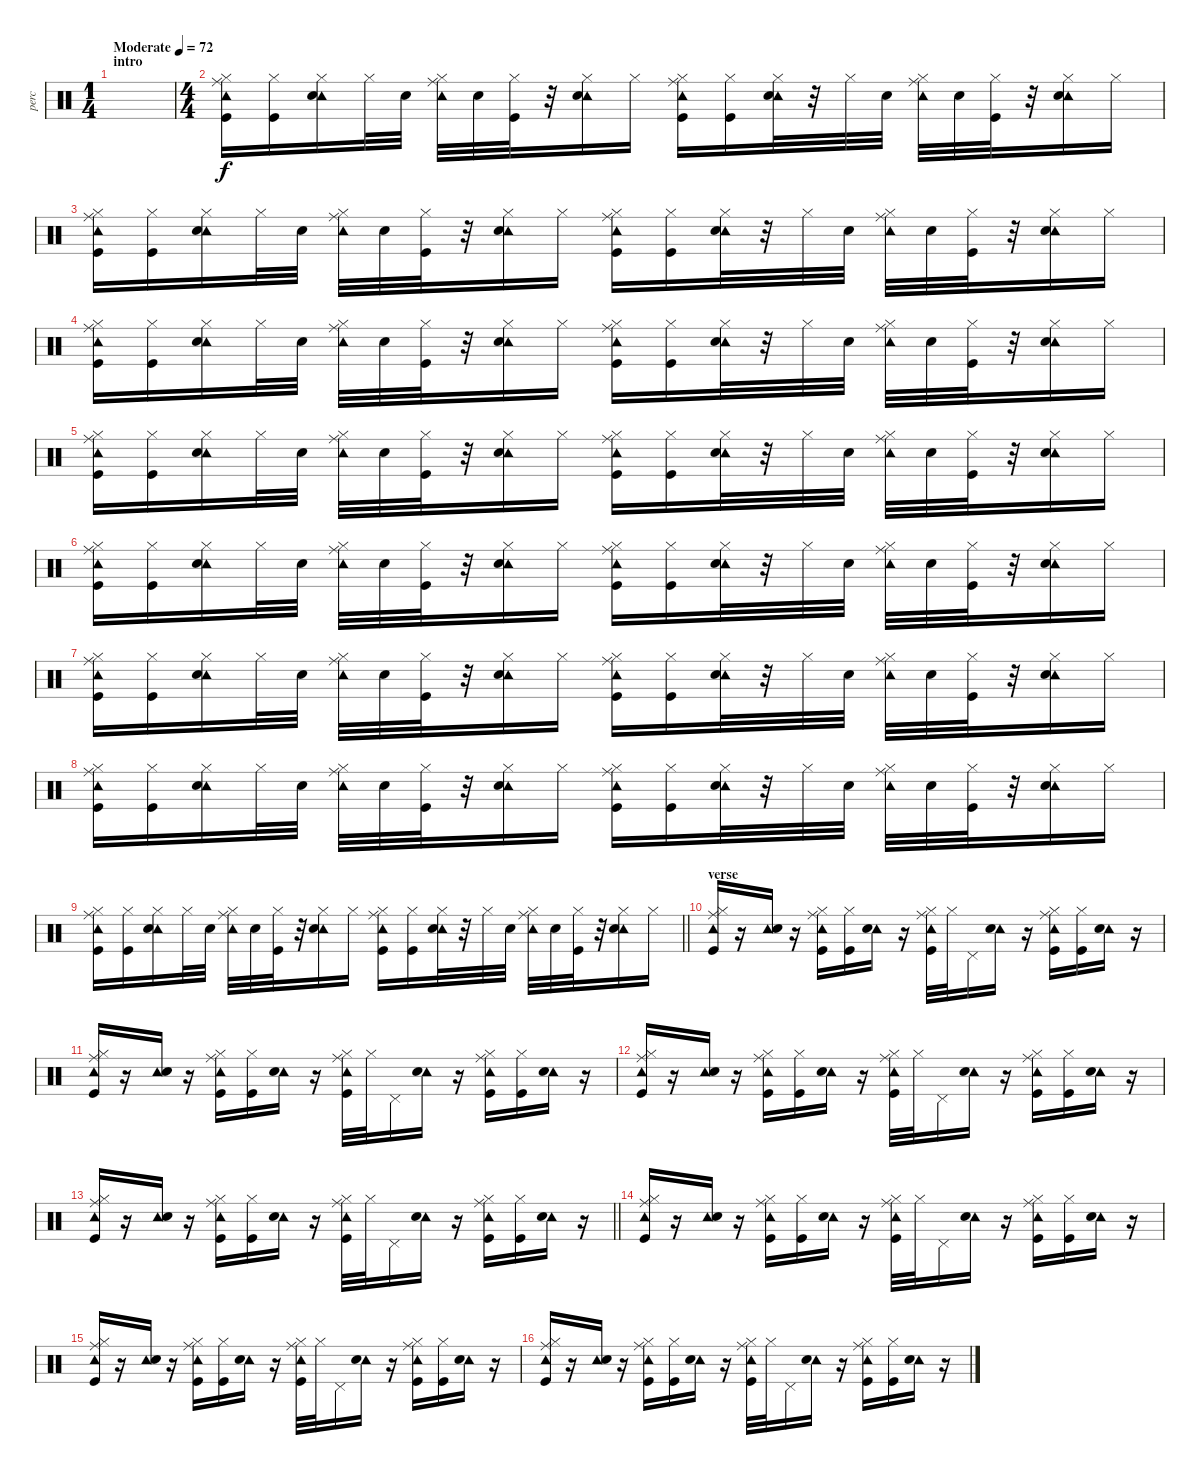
\track ("perc" "perc") {instrument percussion}
\staff {score}
\articulation defaults
\ts (1 4)
\section ("" "intro")
\tempo (72 "Moderate")
\clef neutral
\ks c
|
\ts (4 4)
("Tambourine (hit)" "Hi-Hat (closed)" "Ride (middle)" "Kick (hit)").16 ("Hi-Hat (closed)" "Kick (hit)").16 ("Tambourine (hit)" "Hi-Hat (closed)" "Snare (hit) 2").16 "Hi-Hat (closed)".32 "Snare (hit) 2".32 ("Tambourine (hit)" "Hi-Hat (closed)" "Ride (middle)").32 "Snare (hit) 2".32 ("Hi-Hat (closed)" "Kick (hit)").32 r.32 ("Tambourine (hit)" "Hi-Hat (closed)" "Snare (hit) 2").16 "Hi-Hat (closed)".16 ("Tambourine (hit)" "Hi-Hat (closed)" "Ride (middle)" "Kick (hit)").16 ("Hi-Hat (closed)" "Kick (hit)").16 ("Tambourine (hit)" "Hi-Hat (closed)" "Snare (hit) 2").32 r.32 "Hi-Hat (closed)".32 "Snare (hit) 2".32 ("Tambourine (hit)" "Hi-Hat (closed)" "Ride (middle)").32 "Snare (hit) 2".32 ("Hi-Hat (closed)" "Kick (hit)").32 r.32 ("Tambourine (hit)" "Hi-Hat (closed)" "Snare (hit) 2").16 "Hi-Hat (closed)".16 |
("Tambourine (hit)" "Hi-Hat (closed)" "Ride (middle)" "Kick (hit)").16 ("Hi-Hat (closed)" "Kick (hit)").16 ("Tambourine (hit)" "Hi-Hat (closed)" "Snare (hit) 2").16 "Hi-Hat (closed)".32 "Snare (hit) 2".32 ("Tambourine (hit)" "Hi-Hat (closed)" "Ride (middle)").32 "Snare (hit) 2".32 ("Hi-Hat (closed)" "Kick (hit)").32 r.32 ("Tambourine (hit)" "Hi-Hat (closed)" "Snare (hit) 2").16 "Hi-Hat (closed)".16 ("Tambourine (hit)" "Hi-Hat (closed)" "Ride (middle)" "Kick (hit)").16 ("Hi-Hat (closed)" "Kick (hit)").16 ("Tambourine (hit)" "Hi-Hat (closed)" "Snare (hit) 2").32 r.32 "Hi-Hat (closed)".32 "Snare (hit) 2".32 ("Tambourine (hit)" "Hi-Hat (closed)" "Ride (middle)").32 "Snare (hit) 2".32 ("Hi-Hat (closed)" "Kick (hit)").32 r.32 ("Tambourine (hit)" "Hi-Hat (closed)" "Snare (hit) 2").16 "Hi-Hat (closed)".16 |
("Tambourine (hit)" "Hi-Hat (closed)" "Ride (middle)" "Kick (hit)").16 ("Hi-Hat (closed)" "Kick (hit)").16 ("Tambourine (hit)" "Hi-Hat (closed)" "Snare (hit) 2").16 "Hi-Hat (closed)".32 "Snare (hit) 2".32 ("Tambourine (hit)" "Hi-Hat (closed)" "Ride (middle)").32 "Snare (hit) 2".32 ("Hi-Hat (closed)" "Kick (hit)").32 r.32 ("Tambourine (hit)" "Hi-Hat (closed)" "Snare (hit) 2").16 "Hi-Hat (closed)".16 ("Tambourine (hit)" "Hi-Hat (closed)" "Ride (middle)" "Kick (hit)").16 ("Hi-Hat (closed)" "Kick (hit)").16 ("Tambourine (hit)" "Hi-Hat (closed)" "Snare (hit) 2").32 r.32 "Hi-Hat (closed)".32 "Snare (hit) 2".32 ("Tambourine (hit)" "Hi-Hat (closed)" "Ride (middle)").32 "Snare (hit) 2".32 ("Hi-Hat (closed)" "Kick (hit)").32 r.32 ("Tambourine (hit)" "Hi-Hat (closed)" "Snare (hit) 2").16 "Hi-Hat (closed)".16 |
("Tambourine (hit)" "Hi-Hat (closed)" "Ride (middle)" "Kick (hit)").16 ("Hi-Hat (closed)" "Kick (hit)").16 ("Tambourine (hit)" "Hi-Hat (closed)" "Snare (hit) 2").16 "Hi-Hat (closed)".32 "Snare (hit) 2".32 ("Tambourine (hit)" "Hi-Hat (closed)" "Ride (middle)").32 "Snare (hit) 2".32 ("Hi-Hat (closed)" "Kick (hit)").32 r.32 ("Tambourine (hit)" "Hi-Hat (closed)" "Snare (hit) 2").16 "Hi-Hat (closed)".16 ("Tambourine (hit)" "Hi-Hat (closed)" "Ride (middle)" "Kick (hit)").16 ("Hi-Hat (closed)" "Kick (hit)").16 ("Tambourine (hit)" "Hi-Hat (closed)" "Snare (hit) 2").32 r.32 "Hi-Hat (closed)".32 "Snare (hit) 2".32 ("Tambourine (hit)" "Hi-Hat (closed)" "Ride (middle)").32 "Snare (hit) 2".32 ("Hi-Hat (closed)" "Kick (hit)").32 r.32 ("Tambourine (hit)" "Hi-Hat (closed)" "Snare (hit) 2").16 "Hi-Hat (closed)".16 |
("Tambourine (hit)" "Hi-Hat (closed)" "Ride (middle)" "Kick (hit)").16 ("Hi-Hat (closed)" "Kick (hit)").16 ("Tambourine (hit)" "Hi-Hat (closed)" "Snare (hit) 2").16 "Hi-Hat (closed)".32 "Snare (hit) 2".32 ("Tambourine (hit)" "Hi-Hat (closed)" "Ride (middle)").32 "Snare (hit) 2".32 ("Hi-Hat (closed)" "Kick (hit)").32 r.32 ("Tambourine (hit)" "Hi-Hat (closed)" "Snare (hit) 2").16 "Hi-Hat (closed)".16 ("Tambourine (hit)" "Hi-Hat (closed)" "Ride (middle)" "Kick (hit)").16 ("Hi-Hat (closed)" "Kick (hit)").16 ("Tambourine (hit)" "Hi-Hat (closed)" "Snare (hit) 2").32 r.32 "Hi-Hat (closed)".32 "Snare (hit) 2".32 ("Tambourine (hit)" "Hi-Hat (closed)" "Ride (middle)").32 "Snare (hit) 2".32 ("Hi-Hat (closed)" "Kick (hit)").32 r.32 ("Tambourine (hit)" "Hi-Hat (closed)" "Snare (hit) 2").16 "Hi-Hat (closed)".16 |
("Tambourine (hit)" "Hi-Hat (closed)" "Ride (middle)" "Kick (hit)").16 ("Hi-Hat (closed)" "Kick (hit)").16 ("Tambourine (hit)" "Hi-Hat (closed)" "Snare (hit) 2").16 "Hi-Hat (closed)".32 "Snare (hit) 2".32 ("Tambourine (hit)" "Hi-Hat (closed)" "Ride (middle)").32 "Snare (hit) 2".32 ("Hi-Hat (closed)" "Kick (hit)").32 r.32 ("Tambourine (hit)" "Hi-Hat (closed)" "Snare (hit) 2").16 "Hi-Hat (closed)".16 ("Tambourine (hit)" "Hi-Hat (closed)" "Ride (middle)" "Kick (hit)").16 ("Hi-Hat (closed)" "Kick (hit)").16 ("Tambourine (hit)" "Hi-Hat (closed)" "Snare (hit) 2").32 r.32 "Hi-Hat (closed)".32 "Snare (hit) 2".32 ("Tambourine (hit)" "Hi-Hat (closed)" "Ride (middle)").32 "Snare (hit) 2".32 ("Hi-Hat (closed)" "Kick (hit)").32 r.32 ("Tambourine (hit)" "Hi-Hat (closed)" "Snare (hit) 2").16 "Hi-Hat (closed)".16 |
("Tambourine (hit)" "Hi-Hat (closed)" "Ride (middle)" "Kick (hit)").16 ("Hi-Hat (closed)" "Kick (hit)").16 ("Tambourine (hit)" "Hi-Hat (closed)" "Snare (hit) 2").16 "Hi-Hat (closed)".32 "Snare (hit) 2".32 ("Tambourine (hit)" "Hi-Hat (closed)" "Ride (middle)").32 "Snare (hit) 2".32 ("Hi-Hat (closed)" "Kick (hit)").32 r.32 ("Tambourine (hit)" "Hi-Hat (closed)" "Snare (hit) 2").16 "Hi-Hat (closed)".16 ("Tambourine (hit)" "Hi-Hat (closed)" "Ride (middle)" "Kick (hit)").16 ("Hi-Hat (closed)" "Kick (hit)").16 ("Tambourine (hit)" "Hi-Hat (closed)" "Snare (hit) 2").32 r.32 "Hi-Hat (closed)".32 "Snare (hit) 2".32 ("Tambourine (hit)" "Hi-Hat (closed)" "Ride (middle)").32 "Snare (hit) 2".32 ("Hi-Hat (closed)" "Kick (hit)").32 r.32 ("Tambourine (hit)" "Hi-Hat (closed)" "Snare (hit) 2").16 "Hi-Hat (closed)".16 |
\barLineRight lightlight
("Tambourine (hit)" "Hi-Hat (closed)" "Ride (middle)" "Kick (hit)").16 ("Hi-Hat (closed)" "Kick (hit)").16 ("Tambourine (hit)" "Hi-Hat (closed)" "Snare (hit) 2").16 "Hi-Hat (closed)".32 "Snare (hit) 2".32 ("Tambourine (hit)" "Hi-Hat (closed)" "Ride (middle)").32 "Snare (hit) 2".32 ("Hi-Hat (closed)" "Kick (hit)").32 r.32 ("Tambourine (hit)" "Hi-Hat (closed)" "Snare (hit) 2").16 "Hi-Hat (closed)".16 ("Tambourine (hit)" "Hi-Hat (closed)" "Ride (middle)" "Kick (hit)").16 ("Hi-Hat (closed)" "Kick (hit)").16 ("Tambourine (hit)" "Hi-Hat (closed)" "Snare (hit) 2").32 r.32 "Hi-Hat (closed)".32 "Snare (hit) 2".32 ("Tambourine (hit)" "Hi-Hat (closed)" "Ride (middle)").32 "Snare (hit) 2".32 ("Hi-Hat (closed)" "Kick (hit)").32 r.32 ("Tambourine (hit)" "Hi-Hat (closed)" "Snare (hit) 2").16 "Hi-Hat (closed)".16 |
\section ("" "verse")
("Tambourine (hit)" "Ride (middle)" "Hi-Hat (closed)" "Kick (hit)").16 r.16 ("Tambourine (hit)" "Snare (hit) 2").16 r.16 ("Tambourine (hit)" "Ride (middle)" "Hi-Hat (closed)" "Kick (hit)").16 ("Hi-Hat (closed)" "Kick (hit)").16 ("Tambourine (hit)" "Snare (hit) 2").16 r.16 ("Tambourine (hit)" "Ride (middle)" "Hi-Hat (closed)" "Kick (hit)").32 "Hi-Hat (closed)".32 "Pedal Hi-Hat (hit)".16 ("Tambourine (hit)" "Snare (hit) 2").16 r.16 ("Tambourine (hit)" "Ride (middle)" "Hi-Hat (closed)" "Kick (hit)").16 ("Hi-Hat (closed)" "Kick (hit)").16 ("Tambourine (hit)" "Snare (hit) 2").16 r.16 |
("Tambourine (hit)" "Ride (middle)" "Hi-Hat (closed)" "Kick (hit)").16 r.16 ("Tambourine (hit)" "Snare (hit) 2").16 r.16 ("Tambourine (hit)" "Ride (middle)" "Hi-Hat (closed)" "Kick (hit)").16 ("Hi-Hat (closed)" "Kick (hit)").16 ("Tambourine (hit)" "Snare (hit) 2").16 r.16 ("Tambourine (hit)" "Ride (middle)" "Hi-Hat (closed)" "Kick (hit)").32 "Hi-Hat (closed)".32 "Pedal Hi-Hat (hit)".16 ("Tambourine (hit)" "Snare (hit) 2").16 r.16 ("Tambourine (hit)" "Ride (middle)" "Hi-Hat (closed)" "Kick (hit)").16 ("Hi-Hat (closed)" "Kick (hit)").16 ("Tambourine (hit)" "Snare (hit) 2").16 r.16 |
("Tambourine (hit)" "Ride (middle)" "Hi-Hat (closed)" "Kick (hit)").16 r.16 ("Tambourine (hit)" "Snare (hit) 2").16 r.16 ("Tambourine (hit)" "Ride (middle)" "Hi-Hat (closed)" "Kick (hit)").16 ("Hi-Hat (closed)" "Kick (hit)").16 ("Tambourine (hit)" "Snare (hit) 2").16 r.16 ("Tambourine (hit)" "Ride (middle)" "Hi-Hat (closed)" "Kick (hit)").32 "Hi-Hat (closed)".32 "Pedal Hi-Hat (hit)".16 ("Tambourine (hit)" "Snare (hit) 2").16 r.16 ("Tambourine (hit)" "Ride (middle)" "Hi-Hat (closed)" "Kick (hit)").16 ("Hi-Hat (closed)" "Kick (hit)").16 ("Tambourine (hit)" "Snare (hit) 2").16 r.16 |
\barLineRight lightlight
("Tambourine (hit)" "Ride (middle)" "Hi-Hat (closed)" "Kick (hit)").16 r.16 ("Tambourine (hit)" "Snare (hit) 2").16 r.16 ("Tambourine (hit)" "Ride (middle)" "Hi-Hat (closed)" "Kick (hit)").16 ("Hi-Hat (closed)" "Kick (hit)").16 ("Tambourine (hit)" "Snare (hit) 2").16 r.16 ("Tambourine (hit)" "Ride (middle)" "Hi-Hat (closed)" "Kick (hit)").32 "Hi-Hat (closed)".32 "Pedal Hi-Hat (hit)".16 ("Tambourine (hit)" "Snare (hit) 2").16 r.16 ("Tambourine (hit)" "Ride (middle)" "Hi-Hat (closed)" "Kick (hit)").16 ("Hi-Hat (closed)" "Kick (hit)").16 ("Tambourine (hit)" "Snare (hit) 2").16 r.16 |
\section ("" "")
("Tambourine (hit)" "Ride (middle)" "Hi-Hat (closed)" "Kick (hit)").16 r.16 ("Tambourine (hit)" "Snare (hit) 2").16 r.16 ("Tambourine (hit)" "Ride (middle)" "Hi-Hat (closed)" "Kick (hit)").16 ("Hi-Hat (closed)" "Kick (hit)").16 ("Tambourine (hit)" "Snare (hit) 2").16 r.16 ("Tambourine (hit)" "Ride (middle)" "Hi-Hat (closed)" "Kick (hit)").32 "Hi-Hat (closed)".32 "Pedal Hi-Hat (hit)".16 ("Tambourine (hit)" "Snare (hit) 2").16 r.16 ("Tambourine (hit)" "Ride (middle)" "Hi-Hat (closed)" "Kick (hit)").16 ("Hi-Hat (closed)" "Kick (hit)").16 ("Tambourine (hit)" "Snare (hit) 2").16 r.16 |
("Tambourine (hit)" "Ride (middle)" "Hi-Hat (closed)" "Kick (hit)").16 r.16 ("Tambourine (hit)" "Snare (hit) 2").16 r.16 ("Tambourine (hit)" "Ride (middle)" "Hi-Hat (closed)" "Kick (hit)").16 ("Hi-Hat (closed)" "Kick (hit)").16 ("Tambourine (hit)" "Snare (hit) 2").16 r.16 ("Tambourine (hit)" "Ride (middle)" "Hi-Hat (closed)" "Kick (hit)").32 "Hi-Hat (closed)".32 "Pedal Hi-Hat (hit)".16 ("Tambourine (hit)" "Snare (hit) 2").16 r.16 ("Tambourine (hit)" "Ride (middle)" "Hi-Hat (closed)" "Kick (hit)").16 ("Hi-Hat (closed)" "Kick (hit)").16 ("Tambourine (hit)" "Snare (hit) 2").16 r.16 |
("Tambourine (hit)" "Ride (middle)" "Hi-Hat (closed)" "Kick (hit)").16 r.16 ("Tambourine (hit)" "Snare (hit) 2").16 r.16 ("Tambourine (hit)" "Ride (middle)" "Hi-Hat (closed)" "Kick (hit)").16 ("Hi-Hat (closed)" "Kick (hit)").16 ("Tambourine (hit)" "Snare (hit) 2").16 r.16 ("Tambourine (hit)" "Ride (middle)" "Hi-Hat (closed)" "Kick (hit)").32 "Hi-Hat (closed)".32 "Pedal Hi-Hat (hit)".16 ("Tambourine (hit)" "Snare (hit) 2").16 r.16 ("Tambourine (hit)" "Ride (middle)" "Hi-Hat (closed)" "Kick (hit)").16 ("Hi-Hat (closed)" "Kick (hit)").16 ("Tambourine (hit)" "Snare (hit) 2").16 r.16
